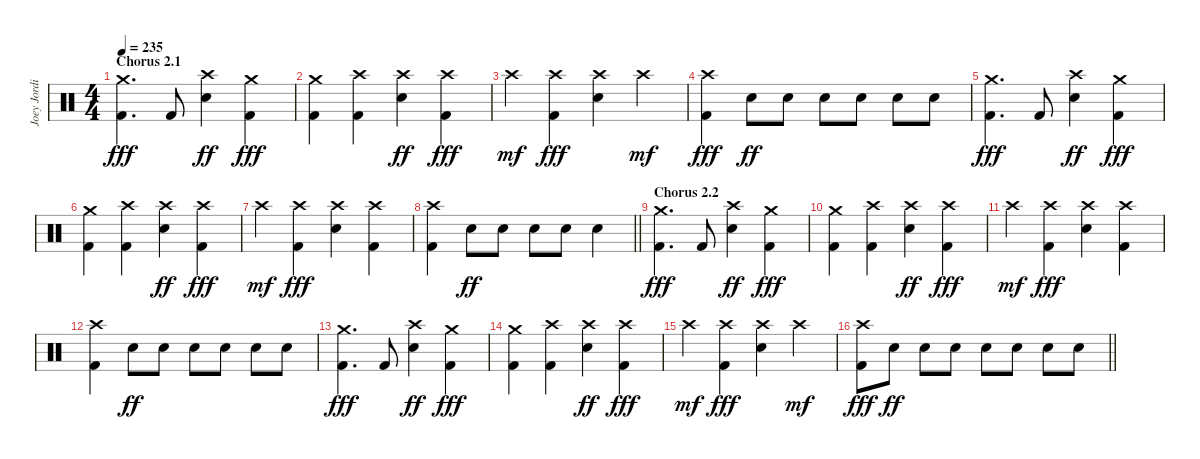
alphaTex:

\track ("Joey Jordison" "Joey Jordi") {instrument percussion}
\staff {score}
\articulation defaults
\ts (4 4)
\section ("" "Chorus 2.1")
\tempo 235
\clef neutral
\ks c
("Crash medium (hit)" "Kick (hit) 2").4{d dy fff} "Kick (hit) 2".8 ("Crash high (hit)" "Electric Snare (hit)").4{dy ff} ("Crash medium (hit)" "Kick (hit) 2").4{dy fff} |
("Crash medium (hit)" "Kick (hit) 2").4 ("Crash high (hit)" "Kick (hit) 2").4 ("Crash high (hit)" "Electric Snare (hit)").4{dy ff} ("Crash high (hit)" "Kick (hit) 2").4{dy fff} |
"Crash high (hit)".4{dy mf} ("Crash high (hit)" "Kick (hit) 2").4{dy fff} ("Crash high (hit)" "Electric Snare (hit)").4 "Crash high (hit)".4{dy mf} |
("Crash high (hit)" "Kick (hit) 2").4{dy fff} "Electric Snare (hit)".8{dy ff} "Electric Snare (hit)".8 "Electric Snare (hit)".8 "Electric Snare (hit)".8 "Electric Snare (hit)".8 "Electric Snare (hit)".8 |
("Crash medium (hit)" "Kick (hit) 2").4{d dy fff} "Kick (hit) 2".8 ("Crash high (hit)" "Electric Snare (hit)").4{dy ff} ("Crash medium (hit)" "Kick (hit) 2").4{dy fff} |
("Crash medium (hit)" "Kick (hit) 2").4 ("Crash high (hit)" "Kick (hit) 2").4 ("Crash high (hit)" "Electric Snare (hit)").4{dy ff} ("Crash high (hit)" "Kick (hit) 2").4{dy fff} |
"Crash high (hit)".4{dy mf} ("Crash high (hit)" "Kick (hit) 2").4{dy fff} ("Crash high (hit)" "Electric Snare (hit)").4 ("Crash high (hit)" "Kick (hit) 2").4 |
\barLineRight lightlight
("Crash high (hit)" "Kick (hit) 2").4 "Electric Snare (hit)".8{dy ff} "Electric Snare (hit)".8 "Electric Snare (hit)".8 "Electric Snare (hit)".8 "Electric Snare (hit)".4 |
\section ("" "Chorus 2.2")
("Crash medium (hit)" "Kick (hit) 2").4{d dy fff} "Kick (hit) 2".8 ("Crash high (hit)" "Electric Snare (hit)").4{dy ff} ("Crash medium (hit)" "Kick (hit) 2").4{dy fff} |
("Crash medium (hit)" "Kick (hit) 2").4 ("Crash high (hit)" "Kick (hit) 2").4 ("Crash high (hit)" "Electric Snare (hit)").4{dy ff} ("Crash high (hit)" "Kick (hit) 2").4{dy fff} |
"Crash high (hit)".4{dy mf} ("Crash high (hit)" "Kick (hit) 2").4{dy fff} ("Crash high (hit)" "Electric Snare (hit)").4 ("Crash high (hit)" "Kick (hit) 2").4 |
("Crash high (hit)" "Kick (hit) 2").4 "Electric Snare (hit)".8{dy ff} "Electric Snare (hit)".8 "Electric Snare (hit)".8 "Electric Snare (hit)".8 "Electric Snare (hit)".8 "Electric Snare (hit)".8 |
("Crash medium (hit)" "Kick (hit) 2").4{d dy fff} "Kick (hit) 2".8 ("Crash high (hit)" "Electric Snare (hit)").4{dy ff} ("Crash medium (hit)" "Kick (hit) 2").4{dy fff} |
("Crash medium (hit)" "Kick (hit) 2").4 ("Crash high (hit)" "Kick (hit) 2").4 ("Crash high (hit)" "Electric Snare (hit)").4{dy ff} ("Crash high (hit)" "Kick (hit) 2").4{dy fff} |
"Crash high (hit)".4{dy mf} ("Crash high (hit)" "Kick (hit) 2").4{dy fff} ("Crash high (hit)" "Electric Snare (hit)").4 "Crash high (hit)".4{dy mf} |
\barLineRight lightlight
("Crash high (hit)" "Kick (hit) 2").8{dy fff} "Electric Snare (hit)".8{dy ff} "Electric Snare (hit)".8 "Electric Snare (hit)".8 "Electric Snare (hit)".8 "Electric Snare (hit)".8 "Electric Snare (hit)".8 "Electric Snare (hit)".8
